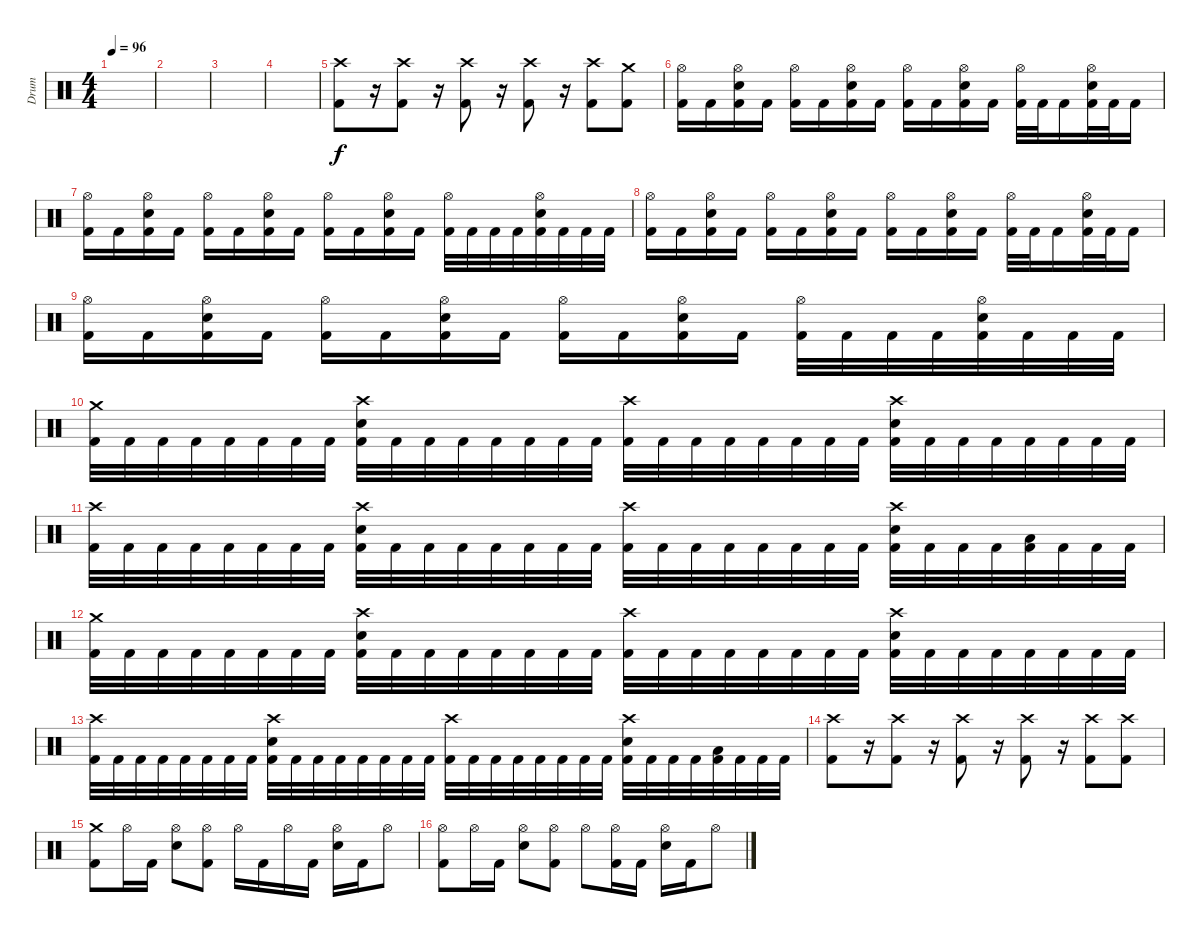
\track ("Drum" "Drum") {instrument percussion}
\staff {score}
\articulation defaults
\ts (4 4)
\tempo 96
\clef neutral
\ks c
|
|
|
|
("Crash high (hit)" "Kick (hit) 2").8 r.16 ("Crash high (hit)" "Kick (hit) 2").8 r.16 ("Crash high (hit)" "Kick (hit) 2").8 r.16 ("Crash high (hit)" "Kick (hit) 2").8 r.16 ("Crash high (hit)" "Kick (hit) 2").8 ("Crash medium (hit)" "Kick (hit) 2").8 |
("Hi-Hat (open)" "Kick (hit) 2").16 "Kick (hit) 2".16 ("Hi-Hat (open)" "Snare (hit) 2" "Kick (hit) 2").16 "Kick (hit) 2".16 ("Hi-Hat (open)" "Kick (hit) 2").16 "Kick (hit) 2".16 ("Hi-Hat (open)" "Snare (hit) 2" "Kick (hit) 2").16 "Kick (hit) 2".16 ("Hi-Hat (open)" "Kick (hit) 2").16 "Kick (hit) 2".16 ("Hi-Hat (open)" "Snare (hit) 2" "Kick (hit) 2").16 "Kick (hit) 2".16 ("Hi-Hat (open)" "Kick (hit) 2").32 "Kick (hit) 2".32 "Kick (hit) 2".16 ("Hi-Hat (open)" "Snare (hit) 2" "Kick (hit) 2").32 "Kick (hit) 2".32 "Kick (hit) 2".16 |
("Hi-Hat (open)" "Kick (hit) 2").16 "Kick (hit) 2".16 ("Hi-Hat (open)" "Snare (hit) 2" "Kick (hit) 2").16 "Kick (hit) 2".16 ("Hi-Hat (open)" "Kick (hit) 2").16 "Kick (hit) 2".16 ("Hi-Hat (open)" "Snare (hit) 2" "Kick (hit) 2").16 "Kick (hit) 2".16 ("Hi-Hat (open)" "Kick (hit) 2").16 "Kick (hit) 2".16 ("Hi-Hat (open)" "Snare (hit) 2" "Kick (hit) 2").16 "Kick (hit) 2".16 ("Hi-Hat (open)" "Kick (hit) 2").32 "Kick (hit) 2".32 "Kick (hit) 2".32 "Kick (hit) 2".32 ("Hi-Hat (open)" "Snare (hit) 2" "Kick (hit) 2").32 "Kick (hit) 2".32 "Kick (hit) 2".32 "Kick (hit) 2".32 |
("Hi-Hat (open)" "Kick (hit) 2").16 "Kick (hit) 2".16 ("Hi-Hat (open)" "Snare (hit) 2" "Kick (hit) 2").16 "Kick (hit) 2".16 ("Hi-Hat (open)" "Kick (hit) 2").16 "Kick (hit) 2".16 ("Hi-Hat (open)" "Snare (hit) 2" "Kick (hit) 2").16 "Kick (hit) 2".16 ("Hi-Hat (open)" "Kick (hit) 2").16 "Kick (hit) 2".16 ("Hi-Hat (open)" "Snare (hit) 2" "Kick (hit) 2").16 "Kick (hit) 2".16 ("Hi-Hat (open)" "Kick (hit) 2").32 "Kick (hit) 2".32 "Kick (hit) 2".16 ("Hi-Hat (open)" "Snare (hit) 2" "Kick (hit) 2").32 "Kick (hit) 2".32 "Kick (hit) 2".16 |
("Hi-Hat (open)" "Kick (hit) 2").16 "Kick (hit) 2".16 ("Hi-Hat (open)" "Snare (hit) 2" "Kick (hit) 2").16 "Kick (hit) 2".16 ("Hi-Hat (open)" "Kick (hit) 2").16 "Kick (hit) 2".16 ("Hi-Hat (open)" "Snare (hit) 2" "Kick (hit) 2").16 "Kick (hit) 2".16 ("Hi-Hat (open)" "Kick (hit) 2").16 "Kick (hit) 2".16 ("Hi-Hat (open)" "Snare (hit) 2" "Kick (hit) 2").16 "Kick (hit) 2".16 ("Hi-Hat (open)" "Kick (hit) 2").32 "Kick (hit) 2".32 "Kick (hit) 2".32 "Kick (hit) 2".32 ("Hi-Hat (open)" "Snare (hit) 2" "Kick (hit) 2").32 "Kick (hit) 2".32 "Kick (hit) 2".32 "Kick (hit) 2".32 |
("Crash medium (hit)" "Kick (hit) 2").32 "Kick (hit) 2".32 "Kick (hit) 2".32 "Kick (hit) 2".32 "Kick (hit) 2".32 "Kick (hit) 2".32 "Kick (hit) 2".32 "Kick (hit) 2".32 ("Crash high (hit)" "Snare (hit) 2" "Kick (hit) 2").32 "Kick (hit) 2".32 "Kick (hit) 2".32 "Kick (hit) 2".32 "Kick (hit) 2".32 "Kick (hit) 2".32 "Kick (hit) 2".32 "Kick (hit) 2".32 ("Crash high (hit)" "Kick (hit) 2").32 "Kick (hit) 2".32 "Kick (hit) 2".32 "Kick (hit) 2".32 "Kick (hit) 2".32 "Kick (hit) 2".32 "Kick (hit) 2".32 "Kick (hit) 2".32 ("Crash high (hit)" "Snare (hit) 2" "Kick (hit) 2").32 "Kick (hit) 2".32 "Kick (hit) 2".32 "Kick (hit) 2".32 "Kick (hit) 2".32 "Kick (hit) 2".32 "Kick (hit) 2".32 "Kick (hit) 2".32 |
("Crash high (hit)" "Kick (hit) 2").32 "Kick (hit) 2".32 "Kick (hit) 2".32 "Kick (hit) 2".32 "Kick (hit) 2".32 "Kick (hit) 2".32 "Kick (hit) 2".32 "Kick (hit) 2".32 ("Crash high (hit)" "Snare (hit) 2" "Kick (hit) 2").32 "Kick (hit) 2".32 "Kick (hit) 2".32 "Kick (hit) 2".32 "Kick (hit) 2".32 "Kick (hit) 2".32 "Kick (hit) 2".32 "Kick (hit) 2".32 ("Crash high (hit)" "Kick (hit) 2").32 "Kick (hit) 2".32 "Kick (hit) 2".32 "Kick (hit) 2".32 "Kick (hit) 2".32 "Kick (hit) 2".32 "Kick (hit) 2".32 "Kick (hit) 2".32 ("Crash high (hit)" "Snare (hit) 2" "Kick (hit) 2").32 "Kick (hit) 2".32 "Kick (hit) 2".32 "Kick (hit) 2".32 ("Low Tom (hit)" "Kick (hit) 2").32 "Kick (hit) 2".32 "Kick (hit) 2".32 "Kick (hit) 2".32 |
("Crash medium (hit)" "Kick (hit) 2").32 "Kick (hit) 2".32 "Kick (hit) 2".32 "Kick (hit) 2".32 "Kick (hit) 2".32 "Kick (hit) 2".32 "Kick (hit) 2".32 "Kick (hit) 2".32 ("Crash high (hit)" "Snare (hit) 2" "Kick (hit) 2").32 "Kick (hit) 2".32 "Kick (hit) 2".32 "Kick (hit) 2".32 "Kick (hit) 2".32 "Kick (hit) 2".32 "Kick (hit) 2".32 "Kick (hit) 2".32 ("Crash high (hit)" "Kick (hit) 2").32 "Kick (hit) 2".32 "Kick (hit) 2".32 "Kick (hit) 2".32 "Kick (hit) 2".32 "Kick (hit) 2".32 "Kick (hit) 2".32 "Kick (hit) 2".32 ("Crash high (hit)" "Snare (hit) 2" "Kick (hit) 2").32 "Kick (hit) 2".32 "Kick (hit) 2".32 "Kick (hit) 2".32 "Kick (hit) 2".32 "Kick (hit) 2".32 "Kick (hit) 2".32 "Kick (hit) 2".32 |
("Crash high (hit)" "Kick (hit) 2").32 "Kick (hit) 2".32 "Kick (hit) 2".32 "Kick (hit) 2".32 "Kick (hit) 2".32 "Kick (hit) 2".32 "Kick (hit) 2".32 "Kick (hit) 2".32 ("Crash high (hit)" "Snare (hit) 2" "Kick (hit) 2").32 "Kick (hit) 2".32 "Kick (hit) 2".32 "Kick (hit) 2".32 "Kick (hit) 2".32 "Kick (hit) 2".32 "Kick (hit) 2".32 "Kick (hit) 2".32 ("Crash high (hit)" "Kick (hit) 2").32 "Kick (hit) 2".32 "Kick (hit) 2".32 "Kick (hit) 2".32 "Kick (hit) 2".32 "Kick (hit) 2".32 "Kick (hit) 2".32 "Kick (hit) 2".32 ("Crash high (hit)" "Snare (hit) 2" "Kick (hit) 2").32 "Kick (hit) 2".32 "Kick (hit) 2".32 "Kick (hit) 2".32 ("Low Tom (hit)" "Kick (hit) 2").32 "Kick (hit) 2".32 "Kick (hit) 2".32 "Kick (hit) 2".32 |
("Crash high (hit)" "Kick (hit) 2").8 r.16 ("Crash high (hit)" "Kick (hit) 2").8 r.16 ("Crash high (hit)" "Kick (hit) 2").8 r.16 ("Crash high (hit)" "Kick (hit) 2").8 r.16 ("Crash high (hit)" "Kick (hit) 2").8 ("Crash high (hit)" "Kick (hit) 2").8 |
("Crash medium (hit)" "Kick (hit) 2").8 "Hi-Hat (open)".16 "Kick (hit) 2".16 ("Hi-Hat (open)" "Snare (hit) 2").8 ("Hi-Hat (open)" "Kick (hit) 2").8 "Hi-Hat (open)".16 "Kick (hit) 2".16 "Hi-Hat (open)".16 "Kick (hit) 2".16 ("Hi-Hat (open)" "Snare (hit) 2").16 "Kick (hit) 2".16 "Hi-Hat (open)".8 |
("Hi-Hat (open)" "Kick (hit) 2").8 "Hi-Hat (open)".16 "Kick (hit) 2".16 ("Hi-Hat (open)" "Snare (hit) 2").8 ("Hi-Hat (open)" "Kick (hit) 2").8 "Hi-Hat (open)".8 ("Hi-Hat (open)" "Kick (hit) 2").16 "Kick (hit) 2".16 ("Hi-Hat (open)" "Snare (hit) 2").16 "Kick (hit) 2".16 "Hi-Hat (open)".8
